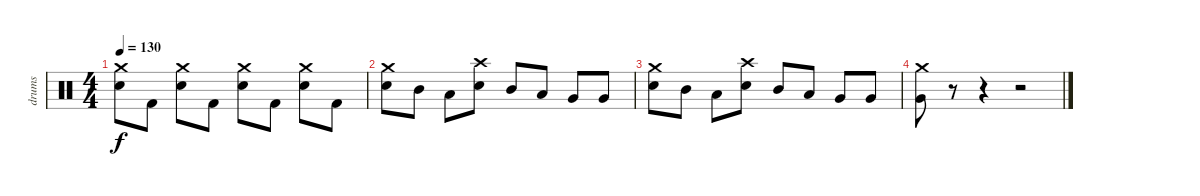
\track ("drums" "drums") {instrument percussion}
\staff {score}
\articulation defaults
\ts (4 4)
\tempo 130
\clef neutral
\ks c
("Electric Snare (hit)" "Crash medium (hit)").8{dy f} "Kick (hit) 2".8 ("Electric Snare (hit)" "Crash medium (hit)").8 "Kick (hit) 2".8 ("Electric Snare (hit)" "Crash medium (hit)").8 "Kick (hit) 2".8 ("Electric Snare (hit)" "Crash medium (hit)").8 "Kick (hit) 2".8 |
("Electric Snare (hit)" "Crash medium (hit)").8 "Mid Tom (hit)".8 "Low Tom (hit)".8 ("Electric Snare (hit)" "Crash high (hit)").8 "Mid Tom (hit)".8 "Low Tom (hit)".8 "Very Low Tom (hit)".8 "Very Low Tom (hit)".8 |
("Electric Snare (hit)" "Crash medium (hit)").8 "Mid Tom (hit)".8 "Low Tom (hit)".8 ("Electric Snare (hit)" "Crash high (hit)").8 "Mid Tom (hit)".8 "Low Tom (hit)".8 "Very Low Tom (hit)".8 "Very Low Tom (hit)".8 |
("Very Low Tom (hit)" "Crash medium (hit)").8 r.8 r.4 r.2
